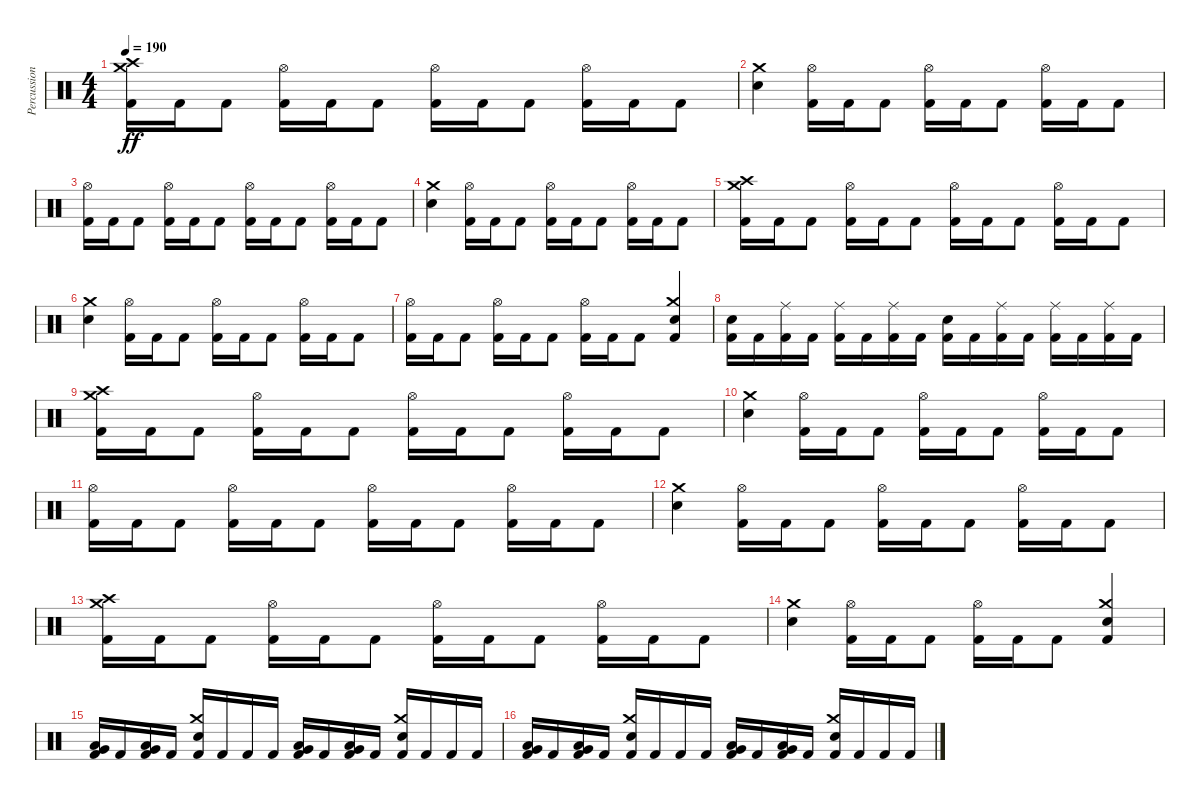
\track ("Percussion" "Percussion") {instrument percussion}
\staff {score}
\articulation defaults
\ts (4 4)
\tempo 190
\clef neutral
\ks c
("Kick (hit) 2" "Crash medium (hit)" "Crash high (hit)").16{dy ff} "Kick (hit) 2".16 "Kick (hit) 2".8 ("Kick (hit) 2" "Hi-Hat (open)").16 "Kick (hit) 2".16 "Kick (hit) 2".8 ("Kick (hit) 2" "Hi-Hat (open)").16 "Kick (hit) 2".16 "Kick (hit) 2".8 ("Kick (hit) 2" "Hi-Hat (open)").16 "Kick (hit) 2".16 "Kick (hit) 2".8 |
("Crash medium (hit)" "Electric Snare (hit)").4 ("Kick (hit) 2" "Hi-Hat (open)").16 "Kick (hit) 2".16 "Kick (hit) 2".8 ("Kick (hit) 2" "Hi-Hat (open)").16 "Kick (hit) 2".16 "Kick (hit) 2".8 ("Kick (hit) 2" "Hi-Hat (open)").16 "Kick (hit) 2".16 "Kick (hit) 2".8 |
("Kick (hit) 2" "Hi-Hat (open)").16 "Kick (hit) 2".16 "Kick (hit) 2".8 ("Kick (hit) 2" "Hi-Hat (open)").16 "Kick (hit) 2".16 "Kick (hit) 2".8 ("Kick (hit) 2" "Hi-Hat (open)").16 "Kick (hit) 2".16 "Kick (hit) 2".8 ("Kick (hit) 2" "Hi-Hat (open)").16 "Kick (hit) 2".16 "Kick (hit) 2".8 |
("Crash medium (hit)" "Electric Snare (hit)").4 ("Kick (hit) 2" "Hi-Hat (open)").16 "Kick (hit) 2".16 "Kick (hit) 2".8 ("Kick (hit) 2" "Hi-Hat (open)").16 "Kick (hit) 2".16 "Kick (hit) 2".8 ("Kick (hit) 2" "Hi-Hat (open)").16 "Kick (hit) 2".16 "Kick (hit) 2".8 |
("Kick (hit) 2" "Crash medium (hit)" "Crash high (hit)").16 "Kick (hit) 2".16 "Kick (hit) 2".8 ("Kick (hit) 2" "Hi-Hat (open)").16 "Kick (hit) 2".16 "Kick (hit) 2".8 ("Kick (hit) 2" "Hi-Hat (open)").16 "Kick (hit) 2".16 "Kick (hit) 2".8 ("Kick (hit) 2" "Hi-Hat (open)").16 "Kick (hit) 2".16 "Kick (hit) 2".8 |
("Crash medium (hit)" "Electric Snare (hit)").4 ("Kick (hit) 2" "Hi-Hat (open)").16 "Kick (hit) 2".16 "Kick (hit) 2".8 ("Kick (hit) 2" "Hi-Hat (open)").16 "Kick (hit) 2".16 "Kick (hit) 2".8 ("Kick (hit) 2" "Hi-Hat (open)").16 "Kick (hit) 2".16 "Kick (hit) 2".8 |
("Kick (hit) 2" "Hi-Hat (open)").16 "Kick (hit) 2".16 "Kick (hit) 2".8 ("Kick (hit) 2" "Hi-Hat (open)").16 "Kick (hit) 2".16 "Kick (hit) 2".8 ("Kick (hit) 2" "Hi-Hat (open)").16 "Kick (hit) 2".16 "Kick (hit) 2".8 ("Kick (hit) 2" "Crash medium (hit)" "Electric Snare (hit)").4 |
("Kick (hit) 2" "Electric Snare (hit)").16 "Kick (hit) 2".16 ("Kick (hit) 2" "Ride (middle)").16 "Kick (hit) 2".16 ("Kick (hit) 2" "Ride (middle)").16 "Kick (hit) 2".16 ("Kick (hit) 2" "Ride (middle)").16 "Kick (hit) 2".16 ("Kick (hit) 2" "Electric Snare (hit)").16 "Kick (hit) 2".16 ("Kick (hit) 2" "Ride (middle)").16 "Kick (hit) 2".16 ("Kick (hit) 2" "Ride (middle)").16 "Kick (hit) 2".16 ("Kick (hit) 2" "Ride (middle)").16 "Kick (hit) 2".16 |
("Kick (hit) 2" "Crash medium (hit)" "Crash high (hit)").16 "Kick (hit) 2".16 "Kick (hit) 2".8 ("Kick (hit) 2" "Hi-Hat (open)").16 "Kick (hit) 2".16 "Kick (hit) 2".8 ("Kick (hit) 2" "Hi-Hat (open)").16 "Kick (hit) 2".16 "Kick (hit) 2".8 ("Kick (hit) 2" "Hi-Hat (open)").16 "Kick (hit) 2".16 "Kick (hit) 2".8 |
("Crash medium (hit)" "Electric Snare (hit)").4 ("Kick (hit) 2" "Hi-Hat (open)").16 "Kick (hit) 2".16 "Kick (hit) 2".8 ("Kick (hit) 2" "Hi-Hat (open)").16 "Kick (hit) 2".16 "Kick (hit) 2".8 ("Kick (hit) 2" "Hi-Hat (open)").16 "Kick (hit) 2".16 "Kick (hit) 2".8 |
("Kick (hit) 2" "Hi-Hat (open)").16 "Kick (hit) 2".16 "Kick (hit) 2".8 ("Kick (hit) 2" "Hi-Hat (open)").16 "Kick (hit) 2".16 "Kick (hit) 2".8 ("Kick (hit) 2" "Hi-Hat (open)").16 "Kick (hit) 2".16 "Kick (hit) 2".8 ("Kick (hit) 2" "Hi-Hat (open)").16 "Kick (hit) 2".16 "Kick (hit) 2".8 |
("Crash medium (hit)" "Electric Snare (hit)").4 ("Kick (hit) 2" "Hi-Hat (open)").16 "Kick (hit) 2".16 "Kick (hit) 2".8 ("Kick (hit) 2" "Hi-Hat (open)").16 "Kick (hit) 2".16 "Kick (hit) 2".8 ("Kick (hit) 2" "Hi-Hat (open)").16 "Kick (hit) 2".16 "Kick (hit) 2".8 |
("Kick (hit) 2" "Crash medium (hit)" "Crash high (hit)").16 "Kick (hit) 2".16 "Kick (hit) 2".8 ("Kick (hit) 2" "Hi-Hat (open)").16 "Kick (hit) 2".16 "Kick (hit) 2".8 ("Kick (hit) 2" "Hi-Hat (open)").16 "Kick (hit) 2".16 "Kick (hit) 2".8 ("Kick (hit) 2" "Hi-Hat (open)").16 "Kick (hit) 2".16 "Kick (hit) 2".8 |
("Crash medium (hit)" "Electric Snare (hit)").4 ("Kick (hit) 2" "Hi-Hat (open)").16 "Kick (hit) 2".16 "Kick (hit) 2".8 ("Kick (hit) 2" "Hi-Hat (open)").16 "Kick (hit) 2".16 "Kick (hit) 2".8 ("Kick (hit) 2" "Crash medium (hit)" "Electric Snare (hit)").4 |
("Kick (hit) 2" "Low Tom (hit)" "Very Low Tom (hit)").16 "Kick (hit) 2".16 ("Kick (hit) 2" "Low Tom (hit)" "Very Low Tom (hit)").16 "Kick (hit) 2".16 ("Kick (hit) 2" "Crash medium (hit)" "Electric Snare (hit)").16 "Kick (hit) 2".16 "Kick (hit) 2".16 "Kick (hit) 2".16 ("Kick (hit) 2" "Low Tom (hit)" "Very Low Tom (hit)").16 "Kick (hit) 2".16 ("Kick (hit) 2" "Low Tom (hit)" "Very Low Tom (hit)").16 "Kick (hit) 2".16 ("Kick (hit) 2" "Crash medium (hit)" "Electric Snare (hit)").16 "Kick (hit) 2".16 "Kick (hit) 2".16 "Kick (hit) 2".16 |
("Kick (hit) 2" "Low Tom (hit)" "Very Low Tom (hit)").16 "Kick (hit) 2".16 ("Kick (hit) 2" "Low Tom (hit)" "Very Low Tom (hit)").16 "Kick (hit) 2".16 ("Kick (hit) 2" "Crash medium (hit)" "Electric Snare (hit)").16 "Kick (hit) 2".16 "Kick (hit) 2".16 "Kick (hit) 2".16 ("Kick (hit) 2" "Low Tom (hit)" "Very Low Tom (hit)").16 "Kick (hit) 2".16 ("Kick (hit) 2" "Low Tom (hit)" "Very Low Tom (hit)").16 "Kick (hit) 2".16 ("Kick (hit) 2" "Crash medium (hit)" "Electric Snare (hit)").16 "Kick (hit) 2".16 "Kick (hit) 2".16 "Kick (hit) 2".16
